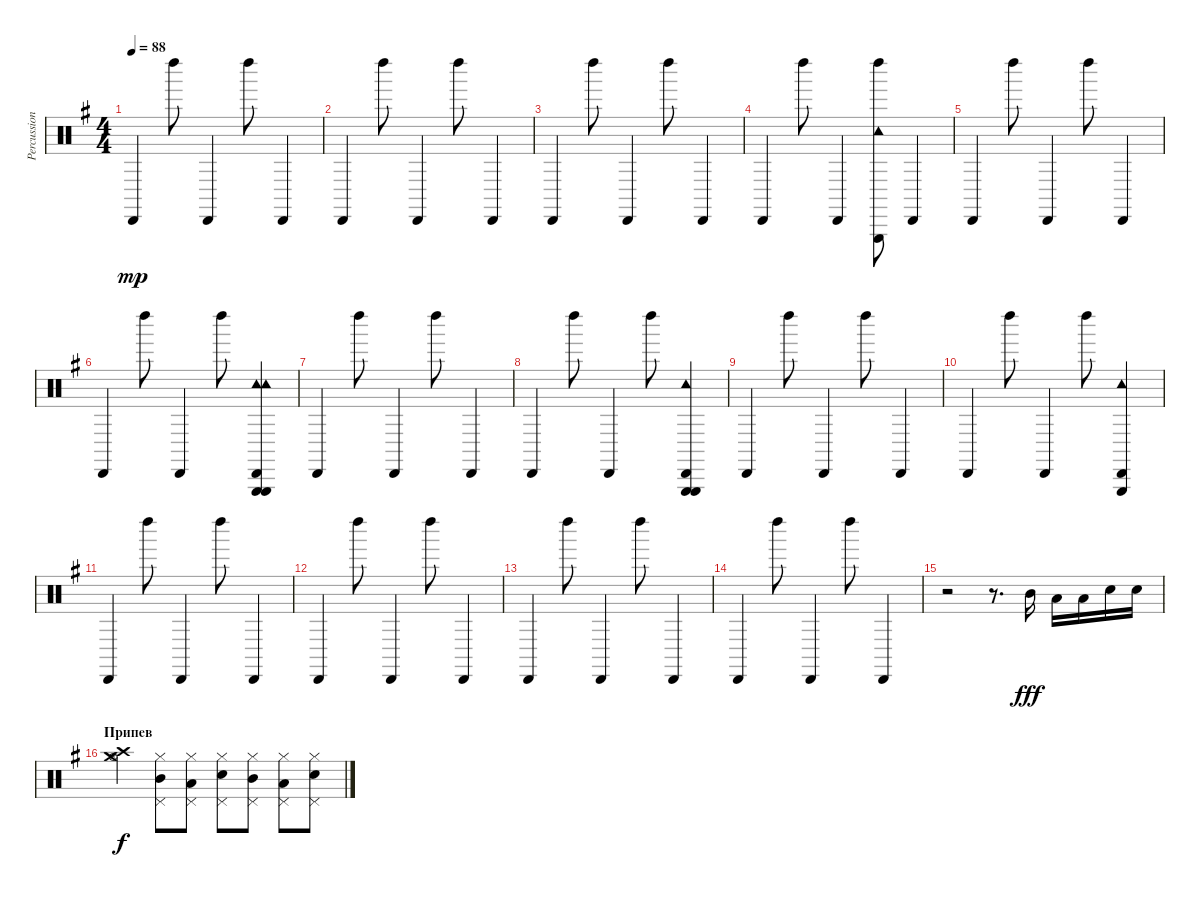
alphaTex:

\track ("Percussion" "Percussion") {instrument percussion}
\staff {score}
\articulation defaults
\ts (4 4)
\tempo 88
\clef neutral
\ks g "Cabasa (hit)".4{dy mp} "Left Maraca (hit)".8 "Cabasa (hit)".4 "Left Maraca (hit)".8 "Cabasa (hit)".4
|
"Cabasa (hit)".4 "Left Maraca (hit)".8 "Cabasa (hit)".4 "Left Maraca (hit)".8 "Cabasa (hit)".4 |
"Cabasa (hit)".4 "Left Maraca (hit)".8 "Cabasa (hit)".4 "Left Maraca (hit)".8 "Cabasa (hit)".4 |
"Cabasa (hit)".4 "Left Maraca (hit)".8 "Cabasa (hit)".4 ("Left Maraca (hit)" "Triangle (hit)" "Tambourine (hit)").8 "Cabasa (hit)".4 |
"Cabasa (hit)".4 "Left Maraca (hit)".8 "Cabasa (hit)".4 "Left Maraca (hit)".8 "Cabasa (hit)".4 |
"Cabasa (hit)".4 "Left Maraca (hit)".8 "Cabasa (hit)".4 "Left Maraca (hit)".8 ("Triangle (hit)" "Tambourine (hit)" "Cabasa (hit)" "Triangle (hit)" "Tambourine (hit)").4 |
"Cabasa (hit)".4 "Left Maraca (hit)".8 "Cabasa (hit)".4 "Left Maraca (hit)".8 "Cabasa (hit)".4 |
"Cabasa (hit)".4 "Left Maraca (hit)".8 "Cabasa (hit)".4 "Left Maraca (hit)".8 ("Triangle (hit)" "Cabasa (hit)" "Triangle (hit)" "Tambourine (hit)").4 |
"Cabasa (hit)".4 "Left Maraca (hit)".8 "Cabasa (hit)".4 "Left Maraca (hit)".8 "Cabasa (hit)".4 |
"Cabasa (hit)".4 "Left Maraca (hit)".8 "Cabasa (hit)".4 "Left Maraca (hit)".8 ("Cabasa (hit)" "Triangle (hit)" "Tambourine (hit)").4 |
"Cabasa (hit)".4 "Left Maraca (hit)".8 "Cabasa (hit)".4 "Left Maraca (hit)".8 "Cabasa (hit)".4 |
"Cabasa (hit)".4 "Left Maraca (hit)".8 "Cabasa (hit)".4 "Left Maraca (hit)".8 "Cabasa (hit)".4 |
"Cabasa (hit)".4 "Left Maraca (hit)".8 "Cabasa (hit)".4 "Left Maraca (hit)".8 "Cabasa (hit)".4 |
"Cabasa (hit)".4 "Left Maraca (hit)".8 "Cabasa (hit)".4 "Left Maraca (hit)".8 "Cabasa (hit)".4 |
r.2 r.8{d} "Mid Tom (hit)".16{dy fff} "Low Tom (hit)".16 "Low Tom (hit)".16 "Electric Snare (hit)".16 "Electric Snare (hit)".16 |
\section ("" "Припев")
("Hi-Hat (open)" "Crash medium (hit)" "Crash high (hit)").4{dy f} ("Mid Tom (hit)" "Pedal Hi-Hat (hit)" "Hi-Hat (closed)").8 ("Low Tom (hit)" "Pedal Hi-Hat (hit)" "Hi-Hat (closed)").8 ("Electric Snare (hit)" "Pedal Hi-Hat (hit)" "Hi-Hat (closed)").8 ("Mid Tom (hit)" "Pedal Hi-Hat (hit)" "Hi-Hat (closed)").8 ("Low Tom (hit)" "Pedal Hi-Hat (hit)" "Hi-Hat (closed)").8 ("Electric Snare (hit)" "Pedal Hi-Hat (hit)" "Hi-Hat (closed)").8
